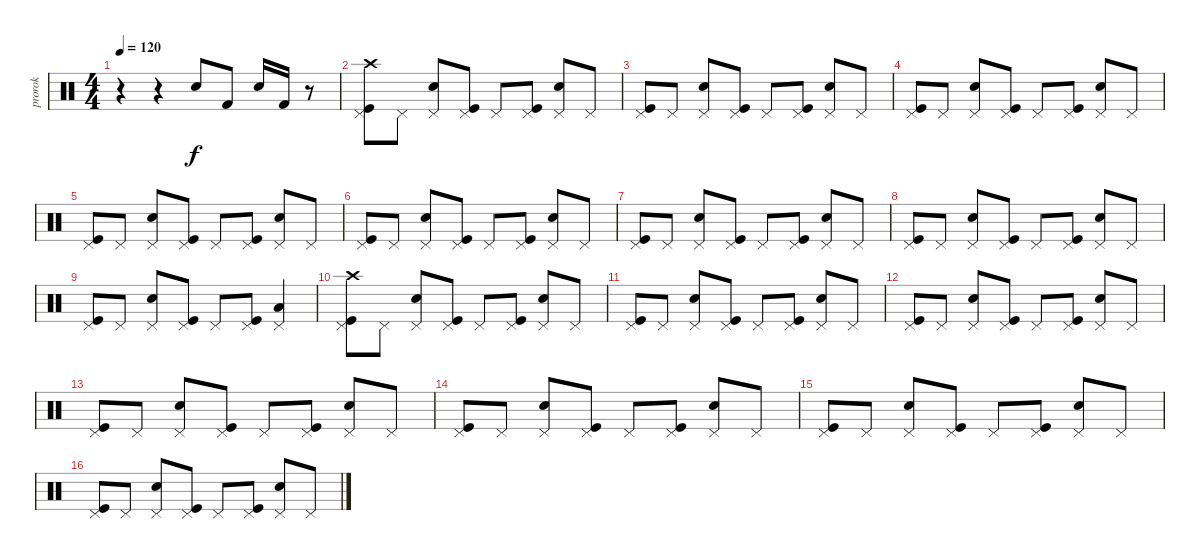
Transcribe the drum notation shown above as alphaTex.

\track ("prorok" "prorok") {instrument percussion}
\staff {score}
\articulation defaults
\ts (4 4)
\tempo 120
\clef neutral
\ks c
r.4{dy f} r.4 "Electric Snare (hit)".8 "Kick (hit) 2".8 "Electric Snare (hit)".16 "Kick (hit) 2".16 r.8 |
("Kick (hit)" "Pedal Hi-Hat (hit)" "Crash high (hit)").8 "Pedal Hi-Hat (hit)".8 ("Electric Snare (hit)" "Pedal Hi-Hat (hit)").8 ("Kick (hit)" "Pedal Hi-Hat (hit)").8 "Pedal Hi-Hat (hit)".8 ("Kick (hit)" "Pedal Hi-Hat (hit)").8 ("Electric Snare (hit)" "Pedal Hi-Hat (hit)").8 "Pedal Hi-Hat (hit)".8 |
("Kick (hit)" "Pedal Hi-Hat (hit)").8 "Pedal Hi-Hat (hit)".8 ("Electric Snare (hit)" "Pedal Hi-Hat (hit)").8 ("Kick (hit)" "Pedal Hi-Hat (hit)").8 "Pedal Hi-Hat (hit)".8 ("Kick (hit)" "Pedal Hi-Hat (hit)").8 ("Electric Snare (hit)" "Pedal Hi-Hat (hit)").8 "Pedal Hi-Hat (hit)".8 |
("Kick (hit)" "Pedal Hi-Hat (hit)").8 "Pedal Hi-Hat (hit)".8 ("Electric Snare (hit)" "Pedal Hi-Hat (hit)").8 ("Kick (hit)" "Pedal Hi-Hat (hit)").8 "Pedal Hi-Hat (hit)".8 ("Kick (hit)" "Pedal Hi-Hat (hit)").8 ("Electric Snare (hit)" "Pedal Hi-Hat (hit)").8 "Pedal Hi-Hat (hit)".8 |
("Kick (hit)" "Pedal Hi-Hat (hit)").8 "Pedal Hi-Hat (hit)".8 ("Electric Snare (hit)" "Pedal Hi-Hat (hit)").8 ("Kick (hit)" "Pedal Hi-Hat (hit)").8 "Pedal Hi-Hat (hit)".8 ("Kick (hit)" "Pedal Hi-Hat (hit)").8 ("Electric Snare (hit)" "Pedal Hi-Hat (hit)").8 "Pedal Hi-Hat (hit)".8 |
("Kick (hit)" "Pedal Hi-Hat (hit)").8 "Pedal Hi-Hat (hit)".8 ("Electric Snare (hit)" "Pedal Hi-Hat (hit)").8 ("Kick (hit)" "Pedal Hi-Hat (hit)").8 "Pedal Hi-Hat (hit)".8 ("Kick (hit)" "Pedal Hi-Hat (hit)").8 ("Electric Snare (hit)" "Pedal Hi-Hat (hit)").8 "Pedal Hi-Hat (hit)".8 |
("Kick (hit)" "Pedal Hi-Hat (hit)").8 "Pedal Hi-Hat (hit)".8 ("Electric Snare (hit)" "Pedal Hi-Hat (hit)").8 ("Kick (hit)" "Pedal Hi-Hat (hit)").8 "Pedal Hi-Hat (hit)".8 ("Kick (hit)" "Pedal Hi-Hat (hit)").8 ("Electric Snare (hit)" "Pedal Hi-Hat (hit)").8 "Pedal Hi-Hat (hit)".8 |
("Kick (hit)" "Pedal Hi-Hat (hit)").8 "Pedal Hi-Hat (hit)".8 ("Electric Snare (hit)" "Pedal Hi-Hat (hit)").8 ("Kick (hit)" "Pedal Hi-Hat (hit)").8 "Pedal Hi-Hat (hit)".8 ("Kick (hit)" "Pedal Hi-Hat (hit)").8 ("Electric Snare (hit)" "Pedal Hi-Hat (hit)").8 "Pedal Hi-Hat (hit)".8 |
("Kick (hit)" "Pedal Hi-Hat (hit)").8 "Pedal Hi-Hat (hit)".8 ("Electric Snare (hit)" "Pedal Hi-Hat (hit)").8 ("Kick (hit)" "Pedal Hi-Hat (hit)").8 "Pedal Hi-Hat (hit)".8 ("Kick (hit)" "Pedal Hi-Hat (hit)").8 ("Low Tom (hit)" "Pedal Hi-Hat (hit)").4 |
("Kick (hit)" "Pedal Hi-Hat (hit)" "Crash high (hit)").8 "Pedal Hi-Hat (hit)".8 ("Electric Snare (hit)" "Pedal Hi-Hat (hit)").8 ("Kick (hit)" "Pedal Hi-Hat (hit)").8 "Pedal Hi-Hat (hit)".8 ("Kick (hit)" "Pedal Hi-Hat (hit)").8 ("Electric Snare (hit)" "Pedal Hi-Hat (hit)").8 "Pedal Hi-Hat (hit)".8 |
("Kick (hit)" "Pedal Hi-Hat (hit)").8 "Pedal Hi-Hat (hit)".8 ("Electric Snare (hit)" "Pedal Hi-Hat (hit)").8 ("Kick (hit)" "Pedal Hi-Hat (hit)").8 "Pedal Hi-Hat (hit)".8 ("Kick (hit)" "Pedal Hi-Hat (hit)").8 ("Electric Snare (hit)" "Pedal Hi-Hat (hit)").8 "Pedal Hi-Hat (hit)".8 |
("Kick (hit)" "Pedal Hi-Hat (hit)").8 "Pedal Hi-Hat (hit)".8 ("Electric Snare (hit)" "Pedal Hi-Hat (hit)").8 ("Kick (hit)" "Pedal Hi-Hat (hit)").8 "Pedal Hi-Hat (hit)".8 ("Kick (hit)" "Pedal Hi-Hat (hit)").8 ("Electric Snare (hit)" "Pedal Hi-Hat (hit)").8 "Pedal Hi-Hat (hit)".8 |
("Kick (hit)" "Pedal Hi-Hat (hit)").8 "Pedal Hi-Hat (hit)".8 ("Electric Snare (hit)" "Pedal Hi-Hat (hit)").8 ("Kick (hit)" "Pedal Hi-Hat (hit)").8 "Pedal Hi-Hat (hit)".8 ("Kick (hit)" "Pedal Hi-Hat (hit)").8 ("Electric Snare (hit)" "Pedal Hi-Hat (hit)").8 "Pedal Hi-Hat (hit)".8 |
("Kick (hit)" "Pedal Hi-Hat (hit)").8 "Pedal Hi-Hat (hit)".8 ("Electric Snare (hit)" "Pedal Hi-Hat (hit)").8 ("Kick (hit)" "Pedal Hi-Hat (hit)").8 "Pedal Hi-Hat (hit)".8 ("Kick (hit)" "Pedal Hi-Hat (hit)").8 ("Electric Snare (hit)" "Pedal Hi-Hat (hit)").8 "Pedal Hi-Hat (hit)".8 |
("Kick (hit)" "Pedal Hi-Hat (hit)").8 "Pedal Hi-Hat (hit)".8 ("Electric Snare (hit)" "Pedal Hi-Hat (hit)").8 ("Kick (hit)" "Pedal Hi-Hat (hit)").8 "Pedal Hi-Hat (hit)".8 ("Kick (hit)" "Pedal Hi-Hat (hit)").8 ("Electric Snare (hit)" "Pedal Hi-Hat (hit)").8 "Pedal Hi-Hat (hit)".8 |
("Kick (hit)" "Pedal Hi-Hat (hit)").8 "Pedal Hi-Hat (hit)".8 ("Electric Snare (hit)" "Pedal Hi-Hat (hit)").8 ("Kick (hit)" "Pedal Hi-Hat (hit)").8 "Pedal Hi-Hat (hit)".8 ("Kick (hit)" "Pedal Hi-Hat (hit)").8 ("Electric Snare (hit)" "Pedal Hi-Hat (hit)").8 "Pedal Hi-Hat (hit)".8
